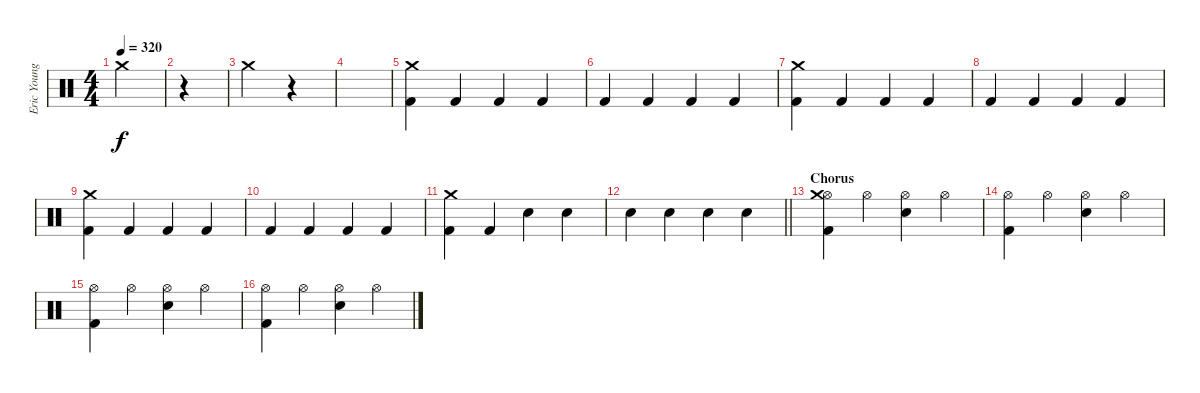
\track ("Eric Young (Drums)" "Eric Young") {instrument percussion}
\staff {score}
\articulation defaults
\ts (4 4)
\tempo 320
\clef neutral
\ks c "Crash medium (hit)".4{dy f}
|
r.4 |
"Crash medium (hit)".4 r.4 |
|
("Kick (hit) 2" "Crash medium (hit)").4 "Kick (hit) 2".4 "Kick (hit) 2".4 "Kick (hit) 2".4 |
"Kick (hit) 2".4 "Kick (hit) 2".4 "Kick (hit) 2".4 "Kick (hit) 2".4 |
("Kick (hit) 2" "Crash medium (hit)").4 "Kick (hit) 2".4 "Kick (hit) 2".4 "Kick (hit) 2".4 |
"Kick (hit) 2".4 "Kick (hit) 2".4 "Kick (hit) 2".4 "Kick (hit) 2".4 |
("Kick (hit) 2" "Crash medium (hit)").4 "Kick (hit) 2".4 "Kick (hit) 2".4 "Kick (hit) 2".4 |
"Kick (hit) 2".4 "Kick (hit) 2".4 "Kick (hit) 2".4 "Kick (hit) 2".4 |
("Kick (hit) 2" "Crash medium (hit)").4 "Kick (hit) 2".4 "Snare (hit) 2".4 "Snare (hit) 2".4 |
\barLineRight lightlight "Snare (hit) 2".4 "Snare (hit) 2".4 "Snare (hit) 2".4 "Snare (hit) 2".4
|
\section ("" "Chorus")
("Hi-Hat (open)" "Kick (hit) 2" "Crash medium (hit)").4 "Hi-Hat (open)".4 ("Hi-Hat (open)" "Snare (hit) 2").4 "Hi-Hat (open)".4 |
("Hi-Hat (open)" "Kick (hit) 2").4 "Hi-Hat (open)".4 ("Hi-Hat (open)" "Snare (hit) 2").4 "Hi-Hat (open)".4 |
("Hi-Hat (open)" "Kick (hit) 2").4 "Hi-Hat (open)".4 ("Hi-Hat (open)" "Snare (hit) 2").4 "Hi-Hat (open)".4 |
("Hi-Hat (open)" "Kick (hit) 2").4 "Hi-Hat (open)".4 ("Hi-Hat (open)" "Snare (hit) 2").4 "Hi-Hat (open)".4
